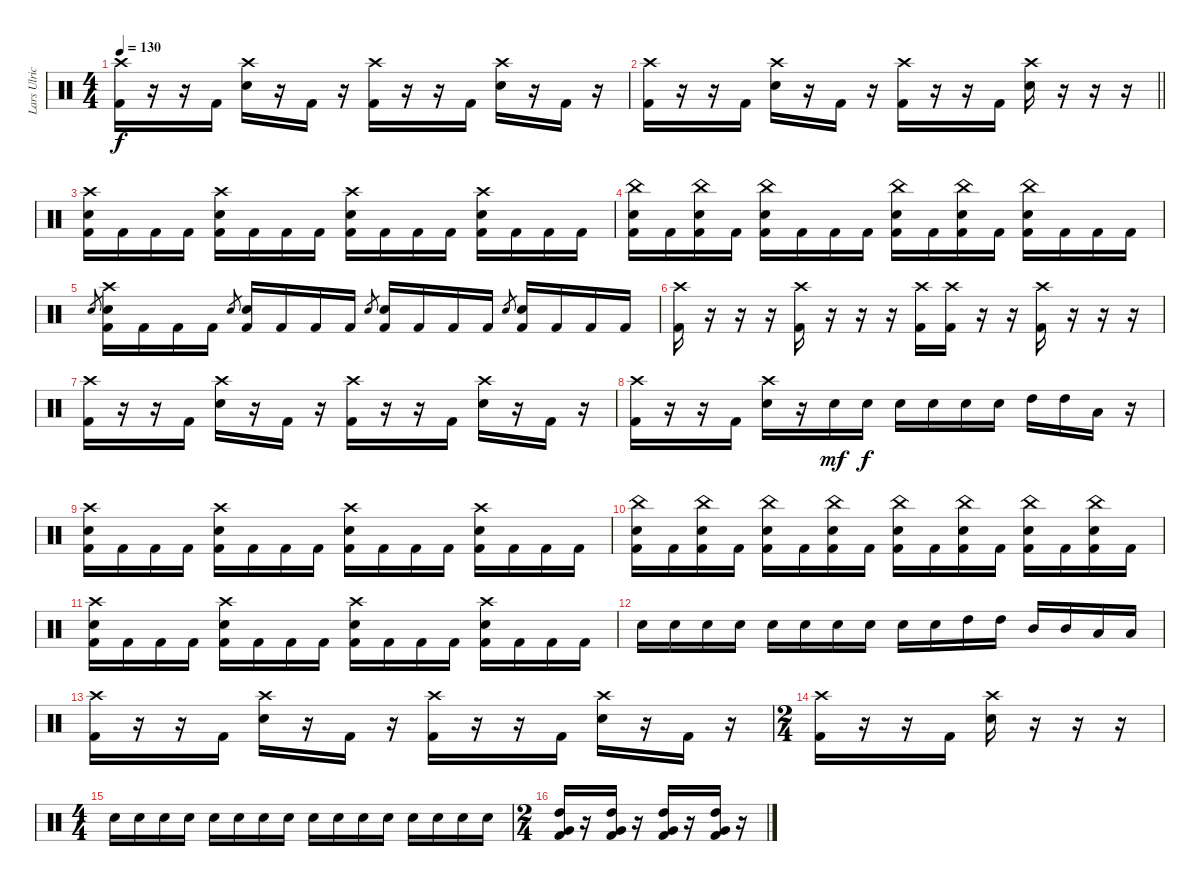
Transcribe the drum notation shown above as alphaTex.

\track ("Lars Ulrich" "Lars Ulric") {instrument percussion}
\staff {score}
\articulation defaults
\ts (4 4)
\tempo 130
\clef neutral
\ks c
("Crash high (hit)" "Kick (hit) 2").16{dy f} r.16 r.16 "Kick (hit) 2".16 ("Crash high (hit)" "Electric Snare (hit)").16 r.16 "Kick (hit) 2".16 r.16 ("Crash high (hit)" "Kick (hit) 2").16 r.16 r.16 "Kick (hit) 2".16 ("Crash high (hit)" "Electric Snare (hit)").16 r.16 "Kick (hit) 2".16 r.16 |
\barLineRight lightlight
("Crash high (hit)" "Kick (hit) 2").16 r.16 r.16 "Kick (hit) 2".16 ("Crash high (hit)" "Electric Snare (hit)").16 r.16 "Kick (hit) 2".16 r.16 ("Crash high (hit)" "Kick (hit) 2").16 r.16 r.16 "Kick (hit) 2".16 ("Crash high (hit)" "Electric Snare (hit)").16 r.16 r.16 r.16 |
\section ("" "")
("Crash high (hit)" "Electric Snare (hit)" "Kick (hit) 2").16 "Kick (hit) 2".16 "Kick (hit) 2".16 "Kick (hit) 2".16 ("Crash high (hit)" "Electric Snare (hit)" "Kick (hit) 2").16 "Kick (hit) 2".16 "Kick (hit) 2".16 "Kick (hit) 2".16 ("Crash high (hit)" "Electric Snare (hit)" "Kick (hit) 2").16 "Kick (hit) 2".16 "Kick (hit) 2".16 "Kick (hit) 2".16 ("Crash high (hit)" "Electric Snare (hit)" "Kick (hit) 2").16 "Kick (hit) 2".16 "Kick (hit) 2".16 "Kick (hit) 2".16 |
("Electric Snare (hit)" "China (hit)" "Kick (hit) 2").16 "Kick (hit) 2".16 ("Electric Snare (hit)" "China (hit)" "Kick (hit) 2").16 "Kick (hit) 2".16 ("Electric Snare (hit)" "China (hit)" "Kick (hit) 2").16 "Kick (hit) 2".16 "Kick (hit) 2".16 "Kick (hit) 2".16 ("Electric Snare (hit)" "China (hit)" "Kick (hit) 2").16 "Kick (hit) 2".16 ("Electric Snare (hit)" "China (hit)" "Kick (hit) 2").16 "Kick (hit) 2".16 ("Electric Snare (hit)" "China (hit)" "Kick (hit) 2").16 "Kick (hit) 2".16 "Kick (hit) 2".16 "Kick (hit) 2".16 |
"Electric Snare (hit)".8{gr} ("Crash high (hit)" "Electric Snare (hit)" "Kick (hit) 2").16 "Kick (hit) 2".16 "Kick (hit) 2".16 "Kick (hit) 2".16 "Electric Snare (hit)".8{gr} ("Electric Snare (hit)" "Kick (hit) 2").16 "Kick (hit) 2".16 "Kick (hit) 2".16 "Kick (hit) 2".16 "Electric Snare (hit)".8{gr} ("Electric Snare (hit)" "Kick (hit) 2").16 "Kick (hit) 2".16 "Kick (hit) 2".16 "Kick (hit) 2".16 "Electric Snare (hit)".8{gr} ("Electric Snare (hit)" "Kick (hit) 2").16 "Kick (hit) 2".16 "Kick (hit) 2".16 "Kick (hit) 2".16 |
("Crash high (hit)" "Kick (hit) 2").16 r.16 r.16{volume 0} r.16 ("Crash high (hit)" "Kick (hit) 2").16{volume 16} r.16 r.16{volume 0} r.16 ("Crash high (hit)" "Kick (hit) 2").16{volume 16} ("Crash high (hit)" "Kick (hit) 2").16 r.16 r.16{volume 0} ("Crash high (hit)" "Kick (hit) 2").16{volume 16} r.16 r.16{volume 0} r.16 |
("Crash high (hit)" "Kick (hit) 2").16{volume 16} r.16 r.16 "Kick (hit) 2".16 ("Crash high (hit)" "Electric Snare (hit)").16 r.16 "Kick (hit) 2".16 r.16 ("Crash high (hit)" "Kick (hit) 2").16 r.16 r.16 "Kick (hit) 2".16 ("Crash high (hit)" "Electric Snare (hit)").16 r.16 "Kick (hit) 2".16 r.16 |
("Crash high (hit)" "Kick (hit) 2").16 r.16 r.16 "Kick (hit) 2".16 ("Crash high (hit)" "Electric Snare (hit)").16 r.16 "Electric Snare (hit)".16{dy mf} "Electric Snare (hit)".16{dy f} "Electric Snare (hit)".16 "Electric Snare (hit)".16 "Electric Snare (hit)".16 "Electric Snare (hit)".16 "High Tom (hit)".16 "High Tom (hit)".16 "Low Tom (hit)".16 r.16 |
("Crash high (hit)" "Electric Snare (hit)" "Kick (hit) 2").16 "Kick (hit) 2".16 "Kick (hit) 2".16 "Kick (hit) 2".16 ("Crash high (hit)" "Electric Snare (hit)" "Kick (hit) 2").16 "Kick (hit) 2".16 "Kick (hit) 2".16 "Kick (hit) 2".16 ("Crash high (hit)" "Electric Snare (hit)" "Kick (hit) 2").16 "Kick (hit) 2".16 "Kick (hit) 2".16 "Kick (hit) 2".16 ("Crash high (hit)" "Electric Snare (hit)" "Kick (hit) 2").16 "Kick (hit) 2".16 "Kick (hit) 2".16 "Kick (hit) 2".16 |
("Electric Snare (hit)" "China (hit)" "Kick (hit) 2").16 "Kick (hit) 2".16 ("Electric Snare (hit)" "China (hit)" "Kick (hit) 2").16 "Kick (hit) 2".16 ("Electric Snare (hit)" "China (hit)" "Kick (hit) 2").16 "Kick (hit) 2".16 ("Electric Snare (hit)" "China (hit)" "Kick (hit) 2").16 "Kick (hit) 2".16 ("Electric Snare (hit)" "China (hit)" "Kick (hit) 2").16 "Kick (hit) 2".16 ("Electric Snare (hit)" "China (hit)" "Kick (hit) 2").16 "Kick (hit) 2".16 ("Electric Snare (hit)" "China (hit)" "Kick (hit) 2").16 "Kick (hit) 2".16 ("Electric Snare (hit)" "China (hit)" "Kick (hit) 2").16 "Kick (hit) 2".16 |
("Crash high (hit)" "Electric Snare (hit)" "Kick (hit) 2").16 "Kick (hit) 2".16 "Kick (hit) 2".16 "Kick (hit) 2".16 ("Crash high (hit)" "Electric Snare (hit)" "Kick (hit) 2").16 "Kick (hit) 2".16 "Kick (hit) 2".16 "Kick (hit) 2".16 ("Crash high (hit)" "Electric Snare (hit)" "Kick (hit) 2").16 "Kick (hit) 2".16 "Kick (hit) 2".16 "Kick (hit) 2".16 ("Crash high (hit)" "Electric Snare (hit)" "Kick (hit) 2").16 "Kick (hit) 2".16 "Kick (hit) 2".16 "Kick (hit) 2".16 |
"Electric Snare (hit)".16 "Electric Snare (hit)".16 "Electric Snare (hit)".16 "Electric Snare (hit)".16 "Electric Snare (hit)".16 "Electric Snare (hit)".16 "Electric Snare (hit)".16 "Electric Snare (hit)".16 "Electric Snare (hit)".16 "Electric Snare (hit)".16 "High Tom (hit)".16 "High Tom (hit)".16 "Mid Tom (hit)".16 "Mid Tom (hit)".16 "Low Tom (hit)".16 "Low Tom (hit)".16 |
("Crash high (hit)" "Kick (hit) 2").16 r.16 r.16 "Kick (hit) 2".16 ("Crash high (hit)" "Electric Snare (hit)").16 r.16 "Kick (hit) 2".16 r.16 ("Crash high (hit)" "Kick (hit) 2").16 r.16 r.16 "Kick (hit) 2".16 ("Crash high (hit)" "Electric Snare (hit)").16 r.16 "Kick (hit) 2".16 r.16 |
\ts (2 4)
("Crash high (hit)" "Kick (hit) 2").16 r.16 r.16 "Kick (hit) 2".16 ("Crash high (hit)" "Electric Snare (hit)").16 r.16 r.16 r.16 |
\ts (4 4)
"Electric Snare (hit)".16 "Electric Snare (hit)".16 "Electric Snare (hit)".16 "Electric Snare (hit)".16 "Electric Snare (hit)".16 "Electric Snare (hit)".16 "Electric Snare (hit)".16 "Electric Snare (hit)".16 "Electric Snare (hit)".16 "Electric Snare (hit)".16 "Electric Snare (hit)".16 "Electric Snare (hit)".16 "Electric Snare (hit)".16 "Electric Snare (hit)".16 "Electric Snare (hit)".16 "Electric Snare (hit)".16 |
\ts (2 4)
("High Tom (hit)" "Very Low Tom (hit)" "Kick (hit) 2").16 r.16 ("High Tom (hit)" "Very Low Tom (hit)" "Kick (hit) 2").16 r.16 ("High Tom (hit)" "Very Low Tom (hit)" "Kick (hit) 2").16 r.16 ("High Tom (hit)" "Very Low Tom (hit)" "Kick (hit) 2").16 r.16
